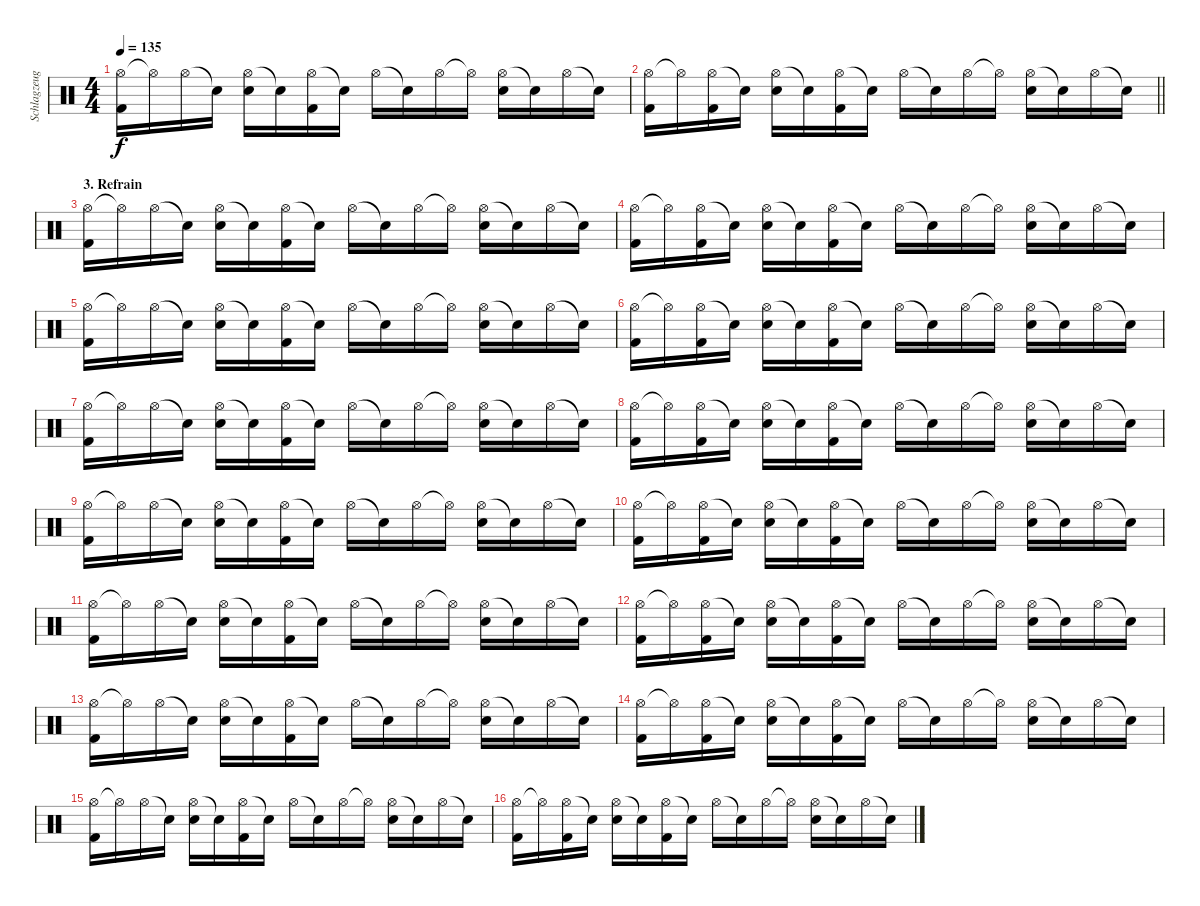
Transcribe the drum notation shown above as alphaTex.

\track ("Schlagzeug" "Schlagzeug") {instrument percussion}
\staff {score}
\articulation defaults
\ts (4 4)
\tempo 135
\clef neutral
\ks c
("Hi-Hat (open)" "Kick (hit) 2").16{dy f} "Hi-Hat (open)"{t}.16 "Hi-Hat (open)".16 "Snare (hit)"{t}.16 ("Hi-Hat (open)" "Snare (hit) 2").16 "Snare (hit)"{t}.16 ("Hi-Hat (open)" "Kick (hit) 2").16 "Snare (hit)"{t}.16 "Hi-Hat (open)".16 "Snare (hit)"{t}.16 "Hi-Hat (open)".16 "Hi-Hat (open)"{t}.16 ("Hi-Hat (open)" "Snare (hit) 2").16 "Snare (hit)"{t}.16 "Hi-Hat (open)".16 "Snare (hit)"{t}.16 |
\barLineRight lightlight
("Hi-Hat (open)" "Kick (hit) 2").16 "Hi-Hat (open)"{t}.16 ("Hi-Hat (open)" "Kick (hit) 2").16 "Snare (hit)"{t}.16 ("Hi-Hat (open)" "Snare (hit) 2").16 "Snare (hit)"{t}.16 ("Hi-Hat (open)" "Kick (hit) 2").16 "Snare (hit)"{t}.16 "Hi-Hat (open)".16 "Snare (hit)"{t}.16 "Hi-Hat (open)".16 "Hi-Hat (open)"{t}.16 ("Hi-Hat (open)" "Snare (hit) 2").16 "Snare (hit)"{t}.16 "Hi-Hat (open)".16 "Snare (hit)"{t}.16 |
\section ("" "3. Refrain")
("Hi-Hat (open)" "Kick (hit) 2").16 "Hi-Hat (open)"{t}.16 "Hi-Hat (open)".16 "Snare (hit)"{t}.16 ("Hi-Hat (open)" "Snare (hit) 2").16 "Snare (hit)"{t}.16 ("Hi-Hat (open)" "Kick (hit) 2").16 "Snare (hit)"{t}.16 "Hi-Hat (open)".16 "Snare (hit)"{t}.16 "Hi-Hat (open)".16 "Hi-Hat (open)"{t}.16 ("Hi-Hat (open)" "Snare (hit) 2").16 "Snare (hit)"{t}.16 "Hi-Hat (open)".16 "Snare (hit)"{t}.16 |
("Hi-Hat (open)" "Kick (hit) 2").16 "Hi-Hat (open)"{t}.16 ("Hi-Hat (open)" "Kick (hit) 2").16 "Snare (hit)"{t}.16 ("Hi-Hat (open)" "Snare (hit) 2").16 "Snare (hit)"{t}.16 ("Hi-Hat (open)" "Kick (hit) 2").16 "Snare (hit)"{t}.16 "Hi-Hat (open)".16 "Snare (hit)"{t}.16 "Hi-Hat (open)".16 "Hi-Hat (open)"{t}.16 ("Hi-Hat (open)" "Snare (hit) 2").16 "Snare (hit)"{t}.16 "Hi-Hat (open)".16 "Snare (hit)"{t}.16 |
("Hi-Hat (open)" "Kick (hit) 2").16 "Hi-Hat (open)"{t}.16 "Hi-Hat (open)".16 "Snare (hit)"{t}.16 ("Hi-Hat (open)" "Snare (hit) 2").16 "Snare (hit)"{t}.16 ("Hi-Hat (open)" "Kick (hit) 2").16 "Snare (hit)"{t}.16 "Hi-Hat (open)".16 "Snare (hit)"{t}.16 "Hi-Hat (open)".16 "Hi-Hat (open)"{t}.16 ("Hi-Hat (open)" "Snare (hit) 2").16 "Snare (hit)"{t}.16 "Hi-Hat (open)".16 "Snare (hit)"{t}.16 |
("Hi-Hat (open)" "Kick (hit) 2").16 "Hi-Hat (open)"{t}.16 ("Hi-Hat (open)" "Kick (hit) 2").16 "Snare (hit)"{t}.16 ("Hi-Hat (open)" "Snare (hit) 2").16 "Snare (hit)"{t}.16 ("Hi-Hat (open)" "Kick (hit) 2").16 "Snare (hit)"{t}.16 "Hi-Hat (open)".16 "Snare (hit)"{t}.16 "Hi-Hat (open)".16 "Hi-Hat (open)"{t}.16 ("Hi-Hat (open)" "Snare (hit) 2").16 "Snare (hit)"{t}.16 "Hi-Hat (open)".16 "Snare (hit)"{t}.16 |
("Hi-Hat (open)" "Kick (hit) 2").16 "Hi-Hat (open)"{t}.16 "Hi-Hat (open)".16 "Snare (hit)"{t}.16 ("Hi-Hat (open)" "Snare (hit) 2").16 "Snare (hit)"{t}.16 ("Hi-Hat (open)" "Kick (hit) 2").16 "Snare (hit)"{t}.16 "Hi-Hat (open)".16 "Snare (hit)"{t}.16 "Hi-Hat (open)".16 "Hi-Hat (open)"{t}.16 ("Hi-Hat (open)" "Snare (hit) 2").16 "Snare (hit)"{t}.16 "Hi-Hat (open)".16 "Snare (hit)"{t}.16 |
("Hi-Hat (open)" "Kick (hit) 2").16 "Hi-Hat (open)"{t}.16 ("Hi-Hat (open)" "Kick (hit) 2").16 "Snare (hit)"{t}.16 ("Hi-Hat (open)" "Snare (hit) 2").16 "Snare (hit)"{t}.16 ("Hi-Hat (open)" "Kick (hit) 2").16 "Snare (hit)"{t}.16 "Hi-Hat (open)".16 "Snare (hit)"{t}.16 "Hi-Hat (open)".16 "Hi-Hat (open)"{t}.16 ("Hi-Hat (open)" "Snare (hit) 2").16 "Snare (hit)"{t}.16 "Hi-Hat (open)".16 "Snare (hit)"{t}.16 |
("Hi-Hat (open)" "Kick (hit) 2").16 "Hi-Hat (open)"{t}.16 "Hi-Hat (open)".16 "Snare (hit)"{t}.16 ("Hi-Hat (open)" "Snare (hit) 2").16 "Snare (hit)"{t}.16 ("Hi-Hat (open)" "Kick (hit) 2").16 "Snare (hit)"{t}.16 "Hi-Hat (open)".16 "Snare (hit)"{t}.16 "Hi-Hat (open)".16 "Hi-Hat (open)"{t}.16 ("Hi-Hat (open)" "Snare (hit) 2").16 "Snare (hit)"{t}.16 "Hi-Hat (open)".16 "Snare (hit)"{t}.16 |
("Hi-Hat (open)" "Kick (hit) 2").16 "Hi-Hat (open)"{t}.16 ("Hi-Hat (open)" "Kick (hit) 2").16 "Snare (hit)"{t}.16 ("Hi-Hat (open)" "Snare (hit) 2").16 "Snare (hit)"{t}.16 ("Hi-Hat (open)" "Kick (hit) 2").16 "Snare (hit)"{t}.16 "Hi-Hat (open)".16 "Snare (hit)"{t}.16 "Hi-Hat (open)".16 "Hi-Hat (open)"{t}.16 ("Hi-Hat (open)" "Snare (hit) 2").16 "Snare (hit)"{t}.16 "Hi-Hat (open)".16 "Snare (hit)"{t}.16 |
("Hi-Hat (open)" "Kick (hit) 2").16 "Hi-Hat (open)"{t}.16 "Hi-Hat (open)".16 "Snare (hit)"{t}.16 ("Hi-Hat (open)" "Snare (hit) 2").16 "Snare (hit)"{t}.16 ("Hi-Hat (open)" "Kick (hit) 2").16 "Snare (hit)"{t}.16 "Hi-Hat (open)".16 "Snare (hit)"{t}.16 "Hi-Hat (open)".16 "Hi-Hat (open)"{t}.16 ("Hi-Hat (open)" "Snare (hit) 2").16 "Snare (hit)"{t}.16 "Hi-Hat (open)".16 "Snare (hit)"{t}.16 |
("Hi-Hat (open)" "Kick (hit) 2").16 "Hi-Hat (open)"{t}.16 ("Hi-Hat (open)" "Kick (hit) 2").16 "Snare (hit)"{t}.16 ("Hi-Hat (open)" "Snare (hit) 2").16 "Snare (hit)"{t}.16 ("Hi-Hat (open)" "Kick (hit) 2").16 "Snare (hit)"{t}.16 "Hi-Hat (open)".16 "Snare (hit)"{t}.16 "Hi-Hat (open)".16 "Hi-Hat (open)"{t}.16 ("Hi-Hat (open)" "Snare (hit) 2").16 "Snare (hit)"{t}.16 "Hi-Hat (open)".16 "Snare (hit)"{t}.16 |
("Hi-Hat (open)" "Kick (hit) 2").16 "Hi-Hat (open)"{t}.16 "Hi-Hat (open)".16 "Snare (hit)"{t}.16 ("Hi-Hat (open)" "Snare (hit) 2").16 "Snare (hit)"{t}.16 ("Hi-Hat (open)" "Kick (hit) 2").16 "Snare (hit)"{t}.16 "Hi-Hat (open)".16 "Snare (hit)"{t}.16 "Hi-Hat (open)".16 "Hi-Hat (open)"{t}.16 ("Hi-Hat (open)" "Snare (hit) 2").16 "Snare (hit)"{t}.16 "Hi-Hat (open)".16 "Snare (hit)"{t}.16 |
("Hi-Hat (open)" "Kick (hit) 2").16 "Hi-Hat (open)"{t}.16 ("Hi-Hat (open)" "Kick (hit) 2").16 "Snare (hit)"{t}.16 ("Hi-Hat (open)" "Snare (hit) 2").16 "Snare (hit)"{t}.16 ("Hi-Hat (open)" "Kick (hit) 2").16 "Snare (hit)"{t}.16 "Hi-Hat (open)".16 "Snare (hit)"{t}.16 "Hi-Hat (open)".16 "Hi-Hat (open)"{t}.16 ("Hi-Hat (open)" "Snare (hit) 2").16 "Snare (hit)"{t}.16 "Hi-Hat (open)".16 "Snare (hit)"{t}.16 |
("Hi-Hat (open)" "Kick (hit) 2").16 "Hi-Hat (open)"{t}.16 "Hi-Hat (open)".16 "Snare (hit)"{t}.16 ("Hi-Hat (open)" "Snare (hit) 2").16 "Snare (hit)"{t}.16 ("Hi-Hat (open)" "Kick (hit) 2").16 "Snare (hit)"{t}.16 "Hi-Hat (open)".16 "Snare (hit)"{t}.16 "Hi-Hat (open)".16 "Hi-Hat (open)"{t}.16 ("Hi-Hat (open)" "Snare (hit) 2").16 "Snare (hit)"{t}.16 "Hi-Hat (open)".16 "Snare (hit)"{t}.16 |
("Hi-Hat (open)" "Kick (hit) 2").16 "Hi-Hat (open)"{t}.16 ("Hi-Hat (open)" "Kick (hit) 2").16 "Snare (hit)"{t}.16 ("Hi-Hat (open)" "Snare (hit) 2").16 "Snare (hit)"{t}.16 ("Hi-Hat (open)" "Kick (hit) 2").16 "Snare (hit)"{t}.16 "Hi-Hat (open)".16 "Snare (hit)"{t}.16 "Hi-Hat (open)".16 "Hi-Hat (open)"{t}.16 ("Hi-Hat (open)" "Snare (hit) 2").16 "Snare (hit)"{t}.16 "Hi-Hat (open)".16 "Snare (hit)"{t}.16
